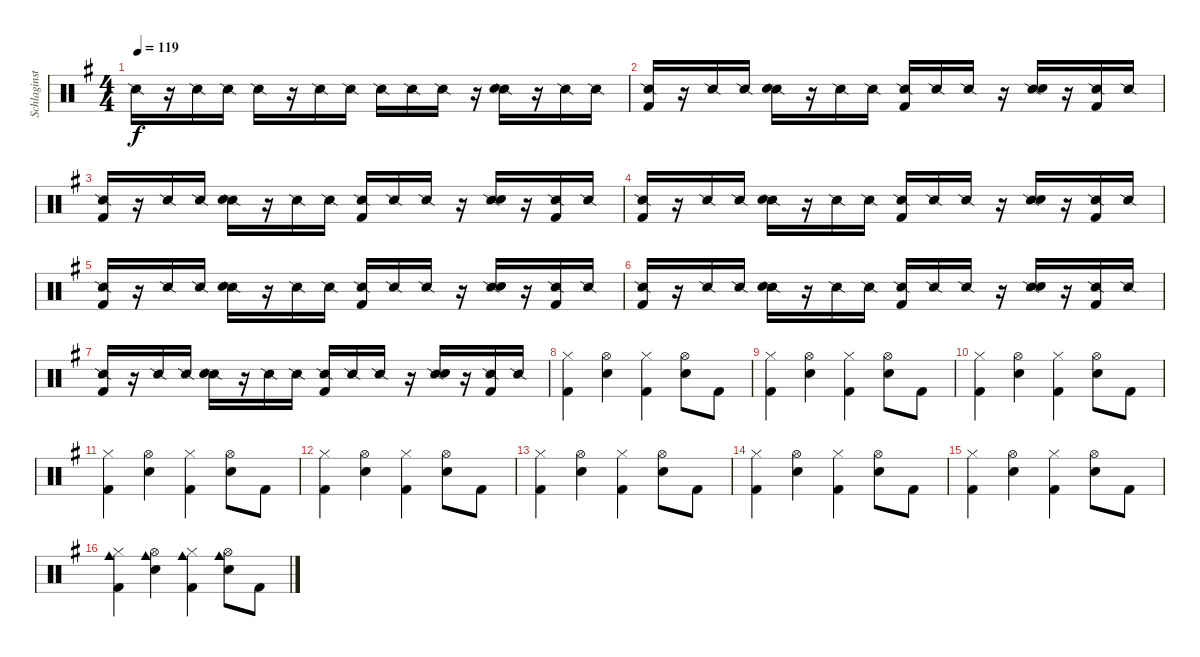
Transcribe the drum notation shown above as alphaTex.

\track ("Schlaginstrumente - Auswahl" "Schlaginst") {instrument percussion}
\staff {score}
\articulation defaults
\ts (4 4)
\tempo 119
\clef neutral
\ks g "Snare (side stick) 2".16{dy f}
r.16 "Snare (side stick) 2".16 "Snare (side stick) 2".16 "Snare (side stick) 2".16 r.16 "Snare (side stick) 2".16 "Snare (side stick) 2".16 "Snare (side stick) 2".16 "Snare (side stick) 2".16 "Snare (side stick) 2".16 r.16 ("Snare (side stick) 2" "Snare (hit) 2").16 r.16 "Snare (side stick) 2".16 "Snare (side stick) 2".16 |
("Snare (side stick) 2" "Kick (hit) 2").16 r.16 "Snare (side stick) 2".16 "Snare (side stick) 2".16 ("Snare (side stick) 2" "Snare (hit) 2").16 r.16 "Snare (side stick) 2".16 "Snare (side stick) 2".16 ("Snare (side stick) 2" "Kick (hit) 2").16 "Snare (side stick) 2".16 "Snare (side stick) 2".16 r.16 ("Snare (side stick) 2" "Snare (hit) 2").16 r.16 ("Snare (side stick) 2" "Kick (hit) 2").16 "Snare (side stick) 2".16 |
("Snare (side stick) 2" "Kick (hit) 2").16 r.16 "Snare (side stick) 2".16 "Snare (side stick) 2".16 ("Snare (side stick) 2" "Snare (hit) 2").16 r.16 "Snare (side stick) 2".16 "Snare (side stick) 2".16 ("Snare (side stick) 2" "Kick (hit) 2").16 "Snare (side stick) 2".16 "Snare (side stick) 2".16 r.16 ("Snare (side stick) 2" "Snare (hit) 2").16 r.16 ("Snare (side stick) 2" "Kick (hit) 2").16 "Snare (side stick) 2".16 |
("Snare (side stick) 2" "Kick (hit) 2").16 r.16 "Snare (side stick) 2".16 "Snare (side stick) 2".16 ("Snare (side stick) 2" "Snare (hit) 2").16 r.16 "Snare (side stick) 2".16 "Snare (side stick) 2".16 ("Snare (side stick) 2" "Kick (hit) 2").16 "Snare (side stick) 2".16 "Snare (side stick) 2".16 r.16 ("Snare (side stick) 2" "Snare (hit) 2").16 r.16 ("Snare (side stick) 2" "Kick (hit) 2").16 "Snare (side stick) 2".16 |
("Snare (side stick) 2" "Kick (hit) 2").16 r.16 "Snare (side stick) 2".16 "Snare (side stick) 2".16 ("Snare (side stick) 2" "Snare (hit) 2").16 r.16 "Snare (side stick) 2".16 "Snare (side stick) 2".16 ("Snare (side stick) 2" "Kick (hit) 2").16 "Snare (side stick) 2".16 "Snare (side stick) 2".16 r.16 ("Snare (side stick) 2" "Snare (hit) 2").16 r.16 ("Snare (side stick) 2" "Kick (hit) 2").16 "Snare (side stick) 2".16 |
("Snare (side stick) 2" "Kick (hit) 2").16 r.16 "Snare (side stick) 2".16 "Snare (side stick) 2".16 ("Snare (side stick) 2" "Snare (hit) 2").16 r.16 "Snare (side stick) 2".16 "Snare (side stick) 2".16 ("Snare (side stick) 2" "Kick (hit) 2").16 "Snare (side stick) 2".16 "Snare (side stick) 2".16 r.16 ("Snare (side stick) 2" "Snare (hit) 2").16 r.16 ("Snare (side stick) 2" "Kick (hit) 2").16 "Snare (side stick) 2".16 |
("Snare (side stick) 2" "Kick (hit) 2").16 r.16 "Snare (side stick) 2".16 "Snare (side stick) 2".16 ("Snare (side stick) 2" "Snare (hit) 2").16 r.16 "Snare (side stick) 2".16 "Snare (side stick) 2".16 ("Snare (side stick) 2" "Kick (hit) 2").16 "Snare (side stick) 2".16 "Snare (side stick) 2".16 r.16 ("Snare (side stick) 2" "Snare (hit) 2").16 r.16 ("Snare (side stick) 2" "Kick (hit) 2").16 "Snare (side stick) 2".16 |
("Hi-Hat (closed)" "Kick (hit) 2").4 ("Hi-Hat (open)" "Snare (hit) 2").4 ("Hi-Hat (closed)" "Kick (hit) 2").4 ("Hi-Hat (open)" "Snare (hit) 2").8 "Kick (hit) 2".8 |
("Hi-Hat (closed)" "Kick (hit) 2").4 ("Hi-Hat (open)" "Snare (hit) 2").4 ("Hi-Hat (closed)" "Kick (hit) 2").4 ("Hi-Hat (open)" "Snare (hit) 2").8 "Kick (hit) 2".8 |
("Hi-Hat (closed)" "Kick (hit) 2").4 ("Hi-Hat (open)" "Snare (hit) 2").4 ("Hi-Hat (closed)" "Kick (hit) 2").4 ("Hi-Hat (open)" "Snare (hit) 2").8 "Kick (hit) 2".8 |
("Hi-Hat (closed)" "Kick (hit) 2").4 ("Hi-Hat (open)" "Snare (hit) 2").4 ("Hi-Hat (closed)" "Kick (hit) 2").4 ("Hi-Hat (open)" "Snare (hit) 2").8 "Kick (hit) 2".8 |
("Hi-Hat (closed)" "Kick (hit) 2").4 ("Hi-Hat (open)" "Snare (hit) 2").4 ("Hi-Hat (closed)" "Kick (hit) 2").4 ("Hi-Hat (open)" "Snare (hit) 2").8 "Kick (hit) 2".8 |
("Hi-Hat (closed)" "Kick (hit) 2").4 ("Hi-Hat (open)" "Snare (hit) 2").4 ("Hi-Hat (closed)" "Kick (hit) 2").4 ("Hi-Hat (open)" "Snare (hit) 2").8 "Kick (hit) 2".8 |
("Hi-Hat (closed)" "Kick (hit) 2").4 ("Hi-Hat (open)" "Snare (hit) 2").4 ("Hi-Hat (closed)" "Kick (hit) 2").4 ("Hi-Hat (open)" "Snare (hit) 2").8 "Kick (hit) 2".8 |
("Hi-Hat (closed)" "Kick (hit) 2").4 ("Hi-Hat (open)" "Snare (hit) 2").4 ("Hi-Hat (closed)" "Kick (hit) 2").4 ("Hi-Hat (open)" "Snare (hit) 2").8 "Kick (hit) 2".8 |
("Cowbell medium (hit)" "Hi-Hat (closed)" "Kick (hit) 2").4 ("Cowbell medium (hit)" "Hi-Hat (open)" "Snare (hit) 2").4 ("Cowbell medium (hit)" "Hi-Hat (closed)" "Kick (hit) 2").4 ("Cowbell medium (hit)" "Hi-Hat (open)" "Snare (hit) 2").8 "Kick (hit) 2".8
